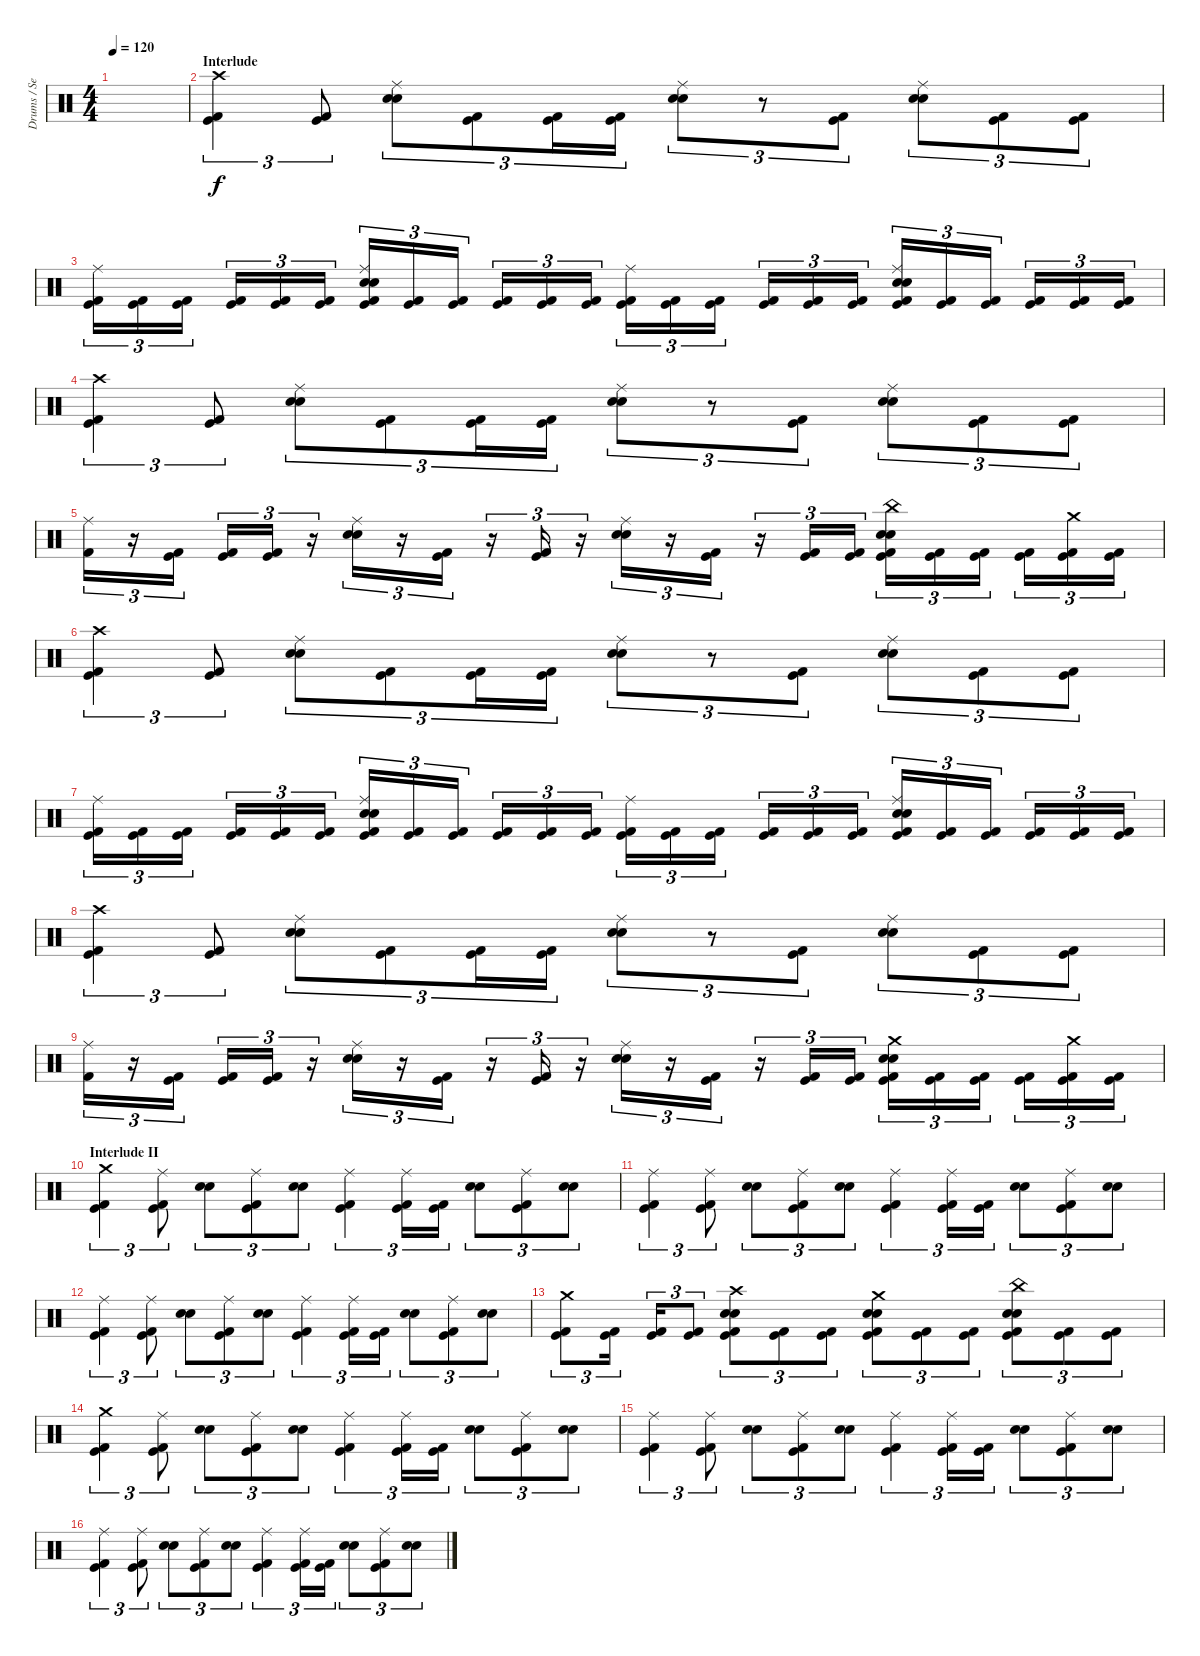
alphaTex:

\track ("Drums / Sean" "Drums / Se") {instrument percussion}
\staff {score}
\articulation defaults
\ts (4 4)
\tempo 120
\clef neutral
\ks c
|
\section ("" "Interlude")
("Crash high (hit)" "Kick (hit)" "Kick (hit) 2").4{tu (3 2) dy f} ("Kick (hit)" "Kick (hit) 2").8{tu (3 2)} ("Ride (middle)" "Electric Snare (hit)" "Snare (hit) 2").8{tu (3 2)} ("Kick (hit)" "Kick (hit) 2").8{tu (3 2)} ("Kick (hit)" "Kick (hit) 2").16{tu (3 2)} ("Kick (hit)" "Kick (hit) 2").16{tu (3 2)} ("Ride (middle)" "Electric Snare (hit)" "Snare (hit) 2").8{tu (3 2)} r.8{tu (3 2)} ("Kick (hit)" "Kick (hit) 2").8{tu (3 2)} ("Ride (middle)" "Electric Snare (hit)" "Snare (hit) 2").8{tu (3 2)} ("Kick (hit)" "Kick (hit) 2").8{tu (3 2)} ("Kick (hit)" "Kick (hit) 2").8{tu (3 2)} |
("Ride (middle)" "Kick (hit)" "Kick (hit) 2").16{tu (3 2)} ("Kick (hit)" "Kick (hit) 2").16{tu (3 2)} ("Kick (hit)" "Kick (hit) 2").16{tu (3 2)} ("Kick (hit)" "Kick (hit) 2").16{tu (3 2)} ("Kick (hit)" "Kick (hit) 2").16{tu (3 2)} ("Kick (hit)" "Kick (hit) 2").16{tu (3 2)} ("Ride (middle)" "Electric Snare (hit)" "Snare (hit) 2" "Kick (hit)" "Kick (hit) 2").16{tu (3 2)} ("Kick (hit)" "Kick (hit) 2").16{tu (3 2)} ("Kick (hit)" "Kick (hit) 2").16{tu (3 2)} ("Kick (hit)" "Kick (hit) 2").16{tu (3 2)} ("Kick (hit)" "Kick (hit) 2").16{tu (3 2)} ("Kick (hit)" "Kick (hit) 2").16{tu (3 2)} ("Ride (middle)" "Kick (hit)" "Kick (hit) 2").16{tu (3 2)} ("Kick (hit)" "Kick (hit) 2").16{tu (3 2)} ("Kick (hit)" "Kick (hit) 2").16{tu (3 2)} ("Kick (hit)" "Kick (hit) 2").16{tu (3 2)} ("Kick (hit)" "Kick (hit) 2").16{tu (3 2)} ("Kick (hit)" "Kick (hit) 2").16{tu (3 2)} ("Ride (middle)" "Electric Snare (hit)" "Snare (hit) 2" "Kick (hit)" "Kick (hit) 2").16{tu (3 2)} ("Kick (hit)" "Kick (hit) 2").16{tu (3 2)} ("Kick (hit)" "Kick (hit) 2").16{tu (3 2)} ("Kick (hit)" "Kick (hit) 2").16{tu (3 2)} ("Kick (hit)" "Kick (hit) 2").16{tu (3 2)} ("Kick (hit)" "Kick (hit) 2").16{tu (3 2)} |
("Crash high (hit)" "Kick (hit)" "Kick (hit) 2").4{tu (3 2)} ("Kick (hit)" "Kick (hit) 2").8{tu (3 2)} ("Ride (middle)" "Electric Snare (hit)" "Snare (hit) 2").8{tu (3 2)} ("Kick (hit)" "Kick (hit) 2").8{tu (3 2)} ("Kick (hit)" "Kick (hit) 2").16{tu (3 2)} ("Kick (hit)" "Kick (hit) 2").16{tu (3 2)} ("Ride (middle)" "Electric Snare (hit)" "Snare (hit) 2").8{tu (3 2)} r.8{tu (3 2)} ("Kick (hit)" "Kick (hit) 2").8{tu (3 2)} ("Ride (middle)" "Electric Snare (hit)" "Snare (hit) 2").8{tu (3 2)} ("Kick (hit)" "Kick (hit) 2").8{tu (3 2)} ("Kick (hit)" "Kick (hit) 2").8{tu (3 2)} |
("Ride (middle)" "Kick (hit) 2").16{tu (3 2)} r.16{tu (3 2)} ("Kick (hit)" "Kick (hit) 2").16{tu (3 2)} ("Kick (hit)" "Kick (hit) 2").16{tu (3 2)} ("Kick (hit)" "Kick (hit) 2").16{tu (3 2)} r.16{tu (3 2)} ("Ride (middle)" "Electric Snare (hit)" "Snare (hit) 2").16{tu (3 2)} r.16{tu (3 2)} ("Kick (hit)" "Kick (hit) 2").16{tu (3 2)} r.16{tu (3 2)} ("Kick (hit)" "Kick (hit) 2").16{tu (3 2)} r.16{tu (3 2)} ("Ride (middle)" "Electric Snare (hit)" "Snare (hit) 2").16{tu (3 2)} r.16{tu (3 2)} ("Kick (hit)" "Kick (hit) 2").16{tu (3 2)} r.16{tu (3 2)} ("Kick (hit)" "Kick (hit) 2").16{tu (3 2)} ("Kick (hit)" "Kick (hit) 2").16{tu (3 2)} ("China (hit)" "Electric Snare (hit)" "Snare (hit) 2" "Kick (hit)" "Kick (hit) 2").16{tu (3 2)} ("Kick (hit)" "Kick (hit) 2").16{tu (3 2)} ("Kick (hit)" "Kick (hit) 2").16{tu (3 2)} ("Kick (hit)" "Kick (hit) 2").16{tu (3 2)} ("Crash medium (hit)" "Kick (hit)" "Kick (hit) 2").16{tu (3 2)} ("Kick (hit)" "Kick (hit) 2").16{tu (3 2)} |
("Crash high (hit)" "Kick (hit)" "Kick (hit) 2").4{tu (3 2)} ("Kick (hit)" "Kick (hit) 2").8{tu (3 2)} ("Ride (middle)" "Electric Snare (hit)" "Snare (hit) 2").8{tu (3 2)} ("Kick (hit)" "Kick (hit) 2").8{tu (3 2)} ("Kick (hit)" "Kick (hit) 2").16{tu (3 2)} ("Kick (hit)" "Kick (hit) 2").16{tu (3 2)} ("Ride (middle)" "Electric Snare (hit)" "Snare (hit) 2").8{tu (3 2)} r.8{tu (3 2)} ("Kick (hit)" "Kick (hit) 2").8{tu (3 2)} ("Ride (middle)" "Electric Snare (hit)" "Snare (hit) 2").8{tu (3 2)} ("Kick (hit)" "Kick (hit) 2").8{tu (3 2)} ("Kick (hit)" "Kick (hit) 2").8{tu (3 2)} |
("Ride (middle)" "Kick (hit)" "Kick (hit) 2").16{tu (3 2)} ("Kick (hit)" "Kick (hit) 2").16{tu (3 2)} ("Kick (hit)" "Kick (hit) 2").16{tu (3 2)} ("Kick (hit)" "Kick (hit) 2").16{tu (3 2)} ("Kick (hit)" "Kick (hit) 2").16{tu (3 2)} ("Kick (hit)" "Kick (hit) 2").16{tu (3 2)} ("Ride (middle)" "Electric Snare (hit)" "Snare (hit) 2" "Kick (hit)" "Kick (hit) 2").16{tu (3 2)} ("Kick (hit)" "Kick (hit) 2").16{tu (3 2)} ("Kick (hit)" "Kick (hit) 2").16{tu (3 2)} ("Kick (hit)" "Kick (hit) 2").16{tu (3 2)} ("Kick (hit)" "Kick (hit) 2").16{tu (3 2)} ("Kick (hit)" "Kick (hit) 2").16{tu (3 2)} ("Ride (middle)" "Kick (hit)" "Kick (hit) 2").16{tu (3 2)} ("Kick (hit)" "Kick (hit) 2").16{tu (3 2)} ("Kick (hit)" "Kick (hit) 2").16{tu (3 2)} ("Kick (hit)" "Kick (hit) 2").16{tu (3 2)} ("Kick (hit)" "Kick (hit) 2").16{tu (3 2)} ("Kick (hit)" "Kick (hit) 2").16{tu (3 2)} ("Ride (middle)" "Electric Snare (hit)" "Snare (hit) 2" "Kick (hit)" "Kick (hit) 2").16{tu (3 2)} ("Kick (hit)" "Kick (hit) 2").16{tu (3 2)} ("Kick (hit)" "Kick (hit) 2").16{tu (3 2)} ("Kick (hit)" "Kick (hit) 2").16{tu (3 2)} ("Kick (hit)" "Kick (hit) 2").16{tu (3 2)} ("Kick (hit)" "Kick (hit) 2").16{tu (3 2)} |
("Crash high (hit)" "Kick (hit)" "Kick (hit) 2").4{tu (3 2)} ("Kick (hit)" "Kick (hit) 2").8{tu (3 2)} ("Ride (middle)" "Electric Snare (hit)" "Snare (hit) 2").8{tu (3 2)} ("Kick (hit)" "Kick (hit) 2").8{tu (3 2)} ("Kick (hit)" "Kick (hit) 2").16{tu (3 2)} ("Kick (hit)" "Kick (hit) 2").16{tu (3 2)} ("Ride (middle)" "Electric Snare (hit)" "Snare (hit) 2").8{tu (3 2)} r.8{tu (3 2)} ("Kick (hit)" "Kick (hit) 2").8{tu (3 2)} ("Ride (middle)" "Electric Snare (hit)" "Snare (hit) 2").8{tu (3 2)} ("Kick (hit)" "Kick (hit) 2").8{tu (3 2)} ("Kick (hit)" "Kick (hit) 2").8{tu (3 2)} |
("Ride (middle)" "Kick (hit) 2").16{tu (3 2)} r.16{tu (3 2)} ("Kick (hit)" "Kick (hit) 2").16{tu (3 2)} ("Kick (hit)" "Kick (hit) 2").16{tu (3 2)} ("Kick (hit)" "Kick (hit) 2").16{tu (3 2)} r.16{tu (3 2)} ("Ride (middle)" "Electric Snare (hit)" "Snare (hit) 2").16{tu (3 2)} r.16{tu (3 2)} ("Kick (hit)" "Kick (hit) 2").16{tu (3 2)} r.16{tu (3 2)} ("Kick (hit)" "Kick (hit) 2").16{tu (3 2)} r.16{tu (3 2)} ("Ride (middle)" "Electric Snare (hit)" "Snare (hit) 2").16{tu (3 2)} r.16{tu (3 2)} ("Kick (hit)" "Kick (hit) 2").16{tu (3 2)} r.16{tu (3 2)} ("Kick (hit)" "Kick (hit) 2").16{tu (3 2)} ("Kick (hit)" "Kick (hit) 2").16{tu (3 2)} ("Crash medium (hit)" "Electric Snare (hit)" "Snare (hit) 2" "Kick (hit)" "Kick (hit) 2").16{tu (3 2)} ("Kick (hit)" "Kick (hit) 2").16{tu (3 2)} ("Kick (hit)" "Kick (hit) 2").16{tu (3 2)} ("Kick (hit)" "Kick (hit) 2").16{tu (3 2)} ("Crash medium (hit)" "Kick (hit)" "Kick (hit) 2").16{tu (3 2)} ("Kick (hit)" "Kick (hit) 2").16{tu (3 2)} |
\section ("" "Interlude II")
("Crash medium (hit)" "Kick (hit)" "Kick (hit) 2").4{tu (3 2)} ("Ride (middle)" "Kick (hit)" "Kick (hit) 2").8{tu (3 2)} ("Electric Snare (hit)" "Snare (hit) 2").8{tu (3 2)} ("Ride (middle)" "Kick (hit)" "Kick (hit) 2").8{tu (3 2)} ("Electric Snare (hit)" "Snare (hit) 2").8{tu (3 2)} ("Ride (middle)" "Kick (hit)" "Kick (hit) 2").4{tu (3 2)} ("Ride (middle)" "Kick (hit)" "Kick (hit) 2").16{tu (3 2)} ("Kick (hit)" "Kick (hit) 2").16{tu (3 2)} ("Electric Snare (hit)" "Snare (hit) 2").8{tu (3 2)} ("Ride (middle)" "Kick (hit)" "Kick (hit) 2").8{tu (3 2)} ("Electric Snare (hit)" "Snare (hit) 2").8{tu (3 2)} |
("Ride (middle)" "Kick (hit)" "Kick (hit) 2").4{tu (3 2)} ("Ride (middle)" "Kick (hit)" "Kick (hit) 2").8{tu (3 2)} ("Electric Snare (hit)" "Snare (hit) 2").8{tu (3 2)} ("Ride (middle)" "Kick (hit)" "Kick (hit) 2").8{tu (3 2)} ("Electric Snare (hit)" "Snare (hit) 2").8{tu (3 2)} ("Ride (middle)" "Kick (hit)" "Kick (hit) 2").4{tu (3 2)} ("Ride (middle)" "Kick (hit)" "Kick (hit) 2").16{tu (3 2)} ("Kick (hit)" "Kick (hit) 2").16{tu (3 2)} ("Electric Snare (hit)" "Snare (hit) 2").8{tu (3 2)} ("Ride (middle)" "Kick (hit)" "Kick (hit) 2").8{tu (3 2)} ("Electric Snare (hit)" "Snare (hit) 2").8{tu (3 2)} |
("Ride (middle)" "Kick (hit)" "Kick (hit) 2").4{tu (3 2)} ("Ride (middle)" "Kick (hit)" "Kick (hit) 2").8{tu (3 2)} ("Electric Snare (hit)" "Snare (hit) 2").8{tu (3 2)} ("Ride (middle)" "Kick (hit)" "Kick (hit) 2").8{tu (3 2)} ("Electric Snare (hit)" "Snare (hit) 2").8{tu (3 2)} ("Ride (middle)" "Kick (hit)" "Kick (hit) 2").4{tu (3 2)} ("Ride (middle)" "Kick (hit)" "Kick (hit) 2").16{tu (3 2)} ("Kick (hit)" "Kick (hit) 2").16{tu (3 2)} ("Electric Snare (hit)" "Snare (hit) 2").8{tu (3 2)} ("Ride (middle)" "Kick (hit)" "Kick (hit) 2").8{tu (3 2)} ("Electric Snare (hit)" "Snare (hit) 2").8{tu (3 2)} |
("Crash medium (hit)" "Kick (hit)" "Kick (hit) 2").8{tu (3 2)} ("Kick (hit)" "Kick (hit) 2").16{tu (3 2)} ("Kick (hit)" "Kick (hit) 2").16{tu (3 2)} ("Kick (hit)" "Kick (hit) 2").8{tu (3 2)} ("Crash high (hit)" "Electric Snare (hit)" "Snare (hit) 2" "Kick (hit)" "Kick (hit) 2").8{tu (3 2)} ("Kick (hit)" "Kick (hit) 2").8{tu (3 2)} ("Kick (hit)" "Kick (hit) 2").8{tu (3 2)} ("Crash medium (hit)" "Electric Snare (hit)" "Snare (hit) 2" "Kick (hit)" "Kick (hit) 2").8{tu (3 2)} ("Kick (hit)" "Kick (hit) 2").8{tu (3 2)} ("Kick (hit)" "Kick (hit) 2").8{tu (3 2)} ("China (hit)" "Electric Snare (hit)" "Snare (hit) 2" "Kick (hit)" "Kick (hit) 2").8{tu (3 2)} ("Kick (hit)" "Kick (hit) 2").8{tu (3 2)} ("Kick (hit)" "Kick (hit) 2").8{tu (3 2)} |
("Crash medium (hit)" "Kick (hit)" "Kick (hit) 2").4{tu (3 2)} ("Ride (middle)" "Kick (hit)" "Kick (hit) 2").8{tu (3 2)} ("Electric Snare (hit)" "Snare (hit) 2").8{tu (3 2)} ("Ride (middle)" "Kick (hit)" "Kick (hit) 2").8{tu (3 2)} ("Electric Snare (hit)" "Snare (hit) 2").8{tu (3 2)} ("Ride (middle)" "Kick (hit)" "Kick (hit) 2").4{tu (3 2)} ("Ride (middle)" "Kick (hit)" "Kick (hit) 2").16{tu (3 2)} ("Kick (hit)" "Kick (hit) 2").16{tu (3 2)} ("Electric Snare (hit)" "Snare (hit) 2").8{tu (3 2)} ("Ride (middle)" "Kick (hit)" "Kick (hit) 2").8{tu (3 2)} ("Electric Snare (hit)" "Snare (hit) 2").8{tu (3 2)} |
("Ride (middle)" "Kick (hit)" "Kick (hit) 2").4{tu (3 2)} ("Ride (middle)" "Kick (hit)" "Kick (hit) 2").8{tu (3 2)} ("Electric Snare (hit)" "Snare (hit) 2").8{tu (3 2)} ("Ride (middle)" "Kick (hit)" "Kick (hit) 2").8{tu (3 2)} ("Electric Snare (hit)" "Snare (hit) 2").8{tu (3 2)} ("Ride (middle)" "Kick (hit)" "Kick (hit) 2").4{tu (3 2)} ("Ride (middle)" "Kick (hit)" "Kick (hit) 2").16{tu (3 2)} ("Kick (hit)" "Kick (hit) 2").16{tu (3 2)} ("Electric Snare (hit)" "Snare (hit) 2").8{tu (3 2)} ("Ride (middle)" "Kick (hit)" "Kick (hit) 2").8{tu (3 2)} ("Electric Snare (hit)" "Snare (hit) 2").8{tu (3 2)} |
("Ride (middle)" "Kick (hit)" "Kick (hit) 2").4{tu (3 2)} ("Ride (middle)" "Kick (hit)" "Kick (hit) 2").8{tu (3 2)} ("Electric Snare (hit)" "Snare (hit) 2").8{tu (3 2)} ("Ride (middle)" "Kick (hit)" "Kick (hit) 2").8{tu (3 2)} ("Electric Snare (hit)" "Snare (hit) 2").8{tu (3 2)} ("Ride (middle)" "Kick (hit)" "Kick (hit) 2").4{tu (3 2)} ("Ride (middle)" "Kick (hit)" "Kick (hit) 2").16{tu (3 2)} ("Kick (hit)" "Kick (hit) 2").16{tu (3 2)} ("Electric Snare (hit)" "Snare (hit) 2").8{tu (3 2)} ("Ride (middle)" "Kick (hit)" "Kick (hit) 2").8{tu (3 2)} ("Electric Snare (hit)" "Snare (hit) 2").8{tu (3 2)}
